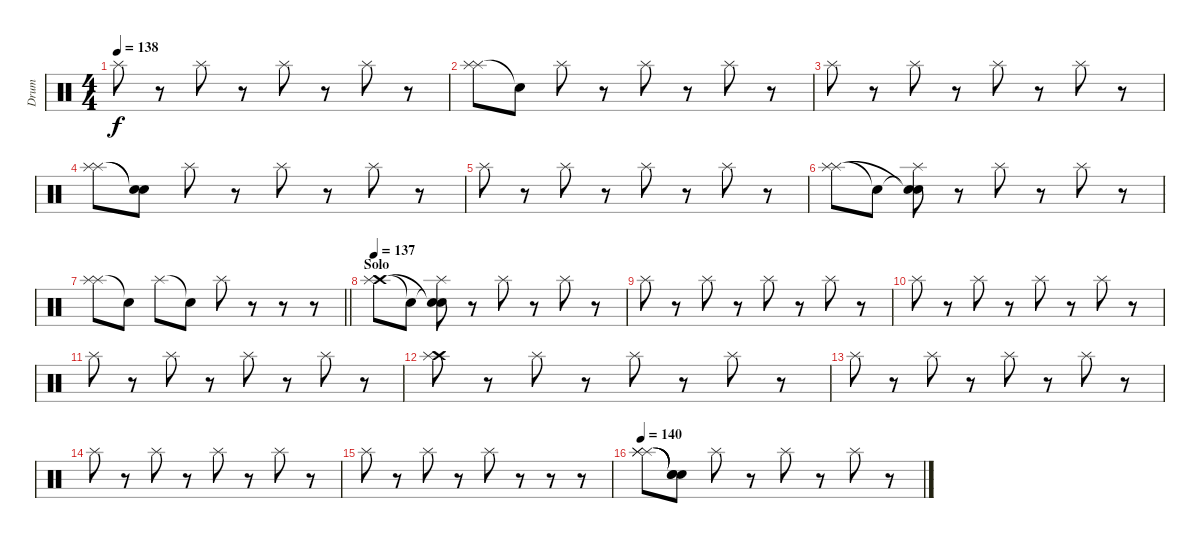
\track ("Drum" "Drum") {instrument percussion}
\staff {score}
\articulation defaults
\ts (4 4)
\tempo 138
\clef neutral
\ks c "Splash (hit)".8{dy f}
r.8 "Splash (hit)".8 r.8 "Splash (hit)".8 r.8 "Splash (hit)".8 r.8 |
("Splash (hit)" "Splash (hit)").8 "Snare (hit)"{t}.8 "Splash (hit)".8 r.8 "Splash (hit)".8 r.8 "Splash (hit)".8 r.8 |
"Splash (hit)".8 r.8 "Splash (hit)".8 r.8 "Splash (hit)".8 r.8 "Splash (hit)".8 r.8 |
("Splash (hit)" "Splash (hit)").8 ("Snare (hit)"{t} "Snare (hit)"{t}).8 "Splash (hit)".8 r.8 "Splash (hit)".8 r.8 "Splash (hit)".8 r.8 |
"Splash (hit)".8 r.8 "Splash (hit)".8 r.8 "Splash (hit)".8 r.8 "Splash (hit)".8 r.8 |
("Splash (hit)" "Splash (hit)").8 "Snare (hit)"{t}.8 ("Snare (hit)"{t} "Snare (hit)"{t} "Splash (hit)").8 r.8 "Splash (hit)".8 r.8 "Splash (hit)".8 r.8 |
\barLineRight lightlight
("Splash (hit)" "Splash (hit)").8 "Snare (hit)"{t}.8 "Splash (hit)".8 "Snare (hit)"{t}.8 "Splash (hit)".8 r.8 r.8 r.8 |
\section ("" "Solo")
\tempo 137
("Crash high (hit)" "Splash (hit)").8 "Snare (hit)"{t}.8 ("Snare (hit)"{t} "Snare (hit)"{t} "Splash (hit)").8 r.8 "Splash (hit)".8 r.8 "Splash (hit)".8 r.8 |
"Splash (hit)".8 r.8 "Splash (hit)".8 r.8 "Splash (hit)".8 r.8 "Splash (hit)".8 r.8 |
"Splash (hit)".8 r.8 "Splash (hit)".8 r.8 "Splash (hit)".8 r.8 "Splash (hit)".8 r.8 |
"Splash (hit)".8 r.8 "Splash (hit)".8 r.8 "Splash (hit)".8 r.8 "Splash (hit)".8 r.8 |
("Crash high (hit)" "Splash (hit)").8 r.8 "Splash (hit)".8 r.8 "Splash (hit)".8 r.8 "Splash (hit)".8 r.8 |
"Splash (hit)".8 r.8 "Splash (hit)".8 r.8 "Splash (hit)".8 r.8 "Splash (hit)".8 r.8 |
"Splash (hit)".8 r.8 "Splash (hit)".8 r.8 "Splash (hit)".8 r.8 "Splash (hit)".8 r.8 |
"Splash (hit)".8 r.8 "Splash (hit)".8 r.8 "Splash (hit)".8 r.8 r.8 r.8 |
\tempo 140
("Splash (hit)" "Splash (hit)" "Splash (hit)").8 ("Snare (hit)"{t} "Snare (hit)"{t} "Snare (hit)"{t}).8 "Splash (hit)".8 r.8 "Splash (hit)".8 r.8 "Splash (hit)".8 r.8
